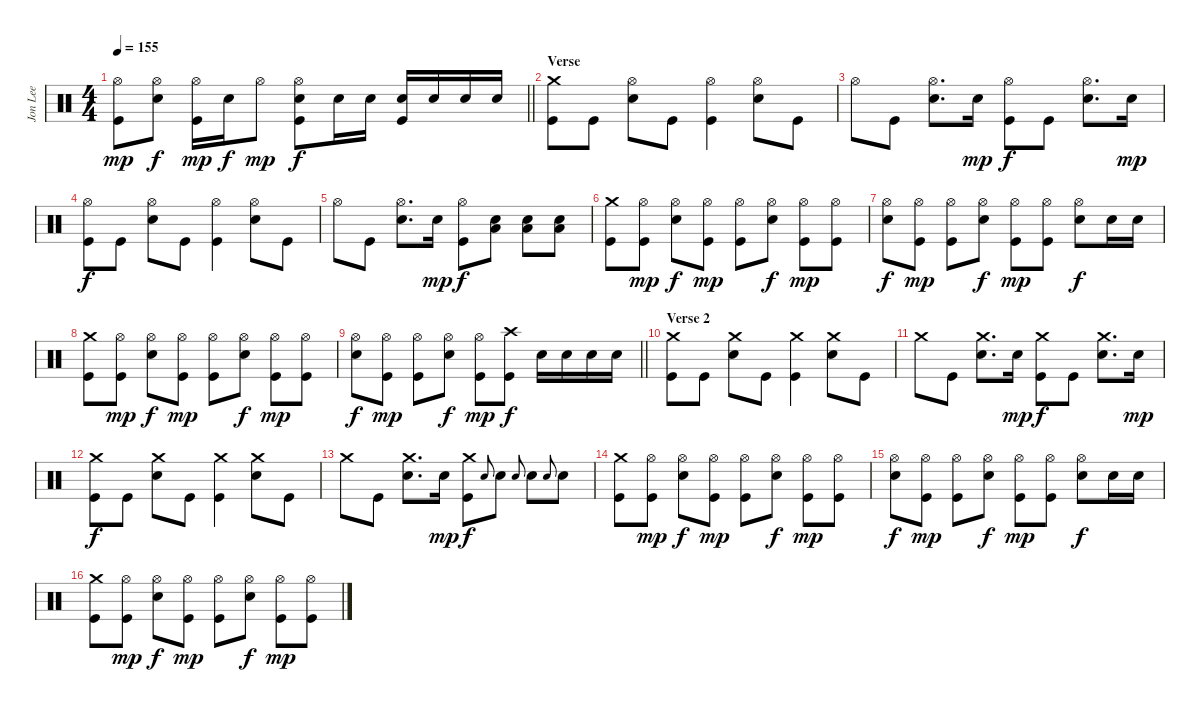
\track ("Jon Lee" "Jon Lee") {instrument percussion}
\staff {score}
\articulation defaults
\ts (4 4)
\tempo 155
\clef neutral
\barLineRight lightlight
\ks c
("Hi-Hat (open)" "Kick (hit)").8{dy mp} ("Hi-Hat (open)" "Electric Snare (hit)").8{dy f} ("Hi-Hat (open)" "Kick (hit)").16{dy mp} "Electric Snare (hit)".16{dy f} "Hi-Hat (open)".8{dy mp} ("Hi-Hat (open)" "Electric Snare (hit)" "Kick (hit)").8{dy f} "Electric Snare (hit)".16 "Electric Snare (hit)".16 ("Electric Snare (hit)" "Kick (hit)").16 "Electric Snare (hit)".16 "Electric Snare (hit)".16 "Electric Snare (hit)".16 |
\section ("" "Verse ")
("Crash medium (hit)" "Kick (hit)").8 "Kick (hit)".8 ("Hi-Hat (open)" "Electric Snare (hit)").8 "Kick (hit)".8 ("Hi-Hat (open)" "Kick (hit)").4 ("Hi-Hat (open)" "Electric Snare (hit)").8 "Kick (hit)".8 |
"Hi-Hat (open)".8 "Kick (hit)".8 ("Hi-Hat (open)" "Electric Snare (hit)").8{d} "Electric Snare (hit)".16{dy mp} ("Hi-Hat (open)" "Kick (hit)").8{dy f} "Kick (hit)".8 ("Hi-Hat (open)" "Electric Snare (hit)").8{d} "Electric Snare (hit)".16{dy mp} |
("Hi-Hat (open)" "Kick (hit)").8{dy f} "Kick (hit)".8 ("Hi-Hat (open)" "Electric Snare (hit)").8 "Kick (hit)".8 ("Hi-Hat (open)" "Kick (hit)").4 ("Hi-Hat (open)" "Electric Snare (hit)").8 "Kick (hit)".8 |
"Hi-Hat (open)".8 "Kick (hit)".8 ("Hi-Hat (open)" "Electric Snare (hit)").8{d} "Electric Snare (hit)".16{dy mp} ("Hi-Hat (open)" "Kick (hit)").8{dy f} ("Low Tom (hit)" "Electric Snare (hit)").8 ("Low Tom (hit)" "Electric Snare (hit)").8 ("Low Tom (hit)" "Electric Snare (hit)").8 |
("Crash medium (hit)" "Kick (hit)").8 ("Hi-Hat (open)" "Kick (hit)").8{dy mp} ("Hi-Hat (open)" "Electric Snare (hit)").8{dy f} ("Hi-Hat (open)" "Kick (hit)").8{dy mp} ("Hi-Hat (open)" "Kick (hit)").8 ("Hi-Hat (open)" "Electric Snare (hit)").8{dy f} ("Hi-Hat (open)" "Kick (hit)").8{dy mp} ("Hi-Hat (open)" "Kick (hit)").8 |
("Hi-Hat (open)" "Electric Snare (hit)").8{dy f} ("Hi-Hat (open)" "Kick (hit)").8{dy mp} ("Hi-Hat (open)" "Kick (hit)").8 ("Hi-Hat (open)" "Electric Snare (hit)").8{dy f} ("Hi-Hat (open)" "Kick (hit)").8{dy mp} ("Hi-Hat (open)" "Kick (hit)").8 ("Hi-Hat (open)" "Electric Snare (hit)").8{dy f} "Electric Snare (hit)".16 "Electric Snare (hit)".16 |
("Crash medium (hit)" "Kick (hit)").8 ("Hi-Hat (open)" "Kick (hit)").8{dy mp} ("Hi-Hat (open)" "Electric Snare (hit)").8{dy f} ("Hi-Hat (open)" "Kick (hit)").8{dy mp} ("Hi-Hat (open)" "Kick (hit)").8 ("Hi-Hat (open)" "Electric Snare (hit)").8{dy f} ("Hi-Hat (open)" "Kick (hit)").8{dy mp} ("Hi-Hat (open)" "Kick (hit)").8 |
\barLineRight lightlight
("Hi-Hat (open)" "Electric Snare (hit)").8{dy f} ("Hi-Hat (open)" "Kick (hit)").8{dy mp} ("Hi-Hat (open)" "Kick (hit)").8 ("Hi-Hat (open)" "Electric Snare (hit)").8{dy f} ("Hi-Hat (open)" "Kick (hit)").8{dy mp} ("Crash high (hit)" "Kick (hit)").8{dy f} "Electric Snare (hit)".16 "Electric Snare (hit)".16 "Electric Snare (hit)".16 "Electric Snare (hit)".16 |
\section ("" "Verse 2")
("Crash medium (hit)" "Kick (hit)").8 "Kick (hit)".8 ("Crash medium (hit)" "Electric Snare (hit)").8 "Kick (hit)".8 ("Crash medium (hit)" "Kick (hit)").4 ("Crash medium (hit)" "Electric Snare (hit)").8 "Kick (hit)".8 |
"Crash medium (hit)".8 "Kick (hit)".8 ("Crash medium (hit)" "Electric Snare (hit)").8{d} "Electric Snare (hit)".16{dy mp} ("Crash medium (hit)" "Kick (hit)").8{dy f} "Kick (hit)".8 ("Crash medium (hit)" "Electric Snare (hit)").8{d} "Electric Snare (hit)".16{dy mp} |
("Crash medium (hit)" "Kick (hit)").8{dy f} "Kick (hit)".8 ("Crash medium (hit)" "Electric Snare (hit)").8 "Kick (hit)".8 ("Crash medium (hit)" "Kick (hit)").4 ("Crash medium (hit)" "Electric Snare (hit)").8 "Kick (hit)".8 |
"Crash medium (hit)".8 "Kick (hit)".8 ("Crash medium (hit)" "Electric Snare (hit)").8{d} "Electric Snare (hit)".16{dy mp} ("Crash medium (hit)" "Kick (hit)").8{dy f} "Electric Snare (hit)".8{gr onbeat} "Electric Snare (hit)".8 "Electric Snare (hit)".8{gr onbeat} "Electric Snare (hit)".8 "Electric Snare (hit)".8{gr onbeat} "Electric Snare (hit)".8 |
("Crash medium (hit)" "Kick (hit)").8 ("Hi-Hat (open)" "Kick (hit)").8{dy mp} ("Hi-Hat (open)" "Electric Snare (hit)").8{dy f} ("Hi-Hat (open)" "Kick (hit)").8{dy mp} ("Hi-Hat (open)" "Kick (hit)").8 ("Hi-Hat (open)" "Electric Snare (hit)").8{dy f} ("Hi-Hat (open)" "Kick (hit)").8{dy mp} ("Hi-Hat (open)" "Kick (hit)").8 |
("Hi-Hat (open)" "Electric Snare (hit)").8{dy f} ("Hi-Hat (open)" "Kick (hit)").8{dy mp} ("Hi-Hat (open)" "Kick (hit)").8 ("Hi-Hat (open)" "Electric Snare (hit)").8{dy f} ("Hi-Hat (open)" "Kick (hit)").8{dy mp} ("Hi-Hat (open)" "Kick (hit)").8 ("Hi-Hat (open)" "Electric Snare (hit)").8{dy f} "Electric Snare (hit)".16 "Electric Snare (hit)".16 |
("Crash medium (hit)" "Kick (hit)").8 ("Hi-Hat (open)" "Kick (hit)").8{dy mp} ("Hi-Hat (open)" "Electric Snare (hit)").8{dy f} ("Hi-Hat (open)" "Kick (hit)").8{dy mp} ("Hi-Hat (open)" "Kick (hit)").8 ("Hi-Hat (open)" "Electric Snare (hit)").8{dy f} ("Hi-Hat (open)" "Kick (hit)").8{dy mp} ("Hi-Hat (open)" "Kick (hit)").8
